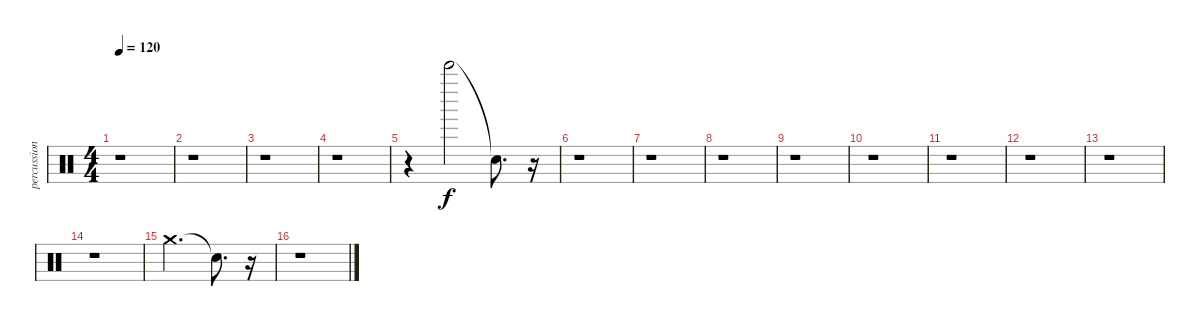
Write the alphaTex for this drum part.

\track ("percussion" "percussion") {instrument percussion}
\staff {score}
\articulation defaults
\ts (4 4)
\tempo 120
\clef neutral
\ks c
r.1{dy f} |
r.1 |
r.1 |
r.1 |
r.4 "Bell Tree (hit)".2 "Snare (hit)"{t}.8{d} r.16 |
r.1 |
r.1 |
r.1 |
r.1 |
r.1 |
r.1 |
r.1 |
r.1 |
r.1 |
"Crash medium (hit)".2{d} "Snare (hit)"{t}.8{d} r.16 |
r.1
